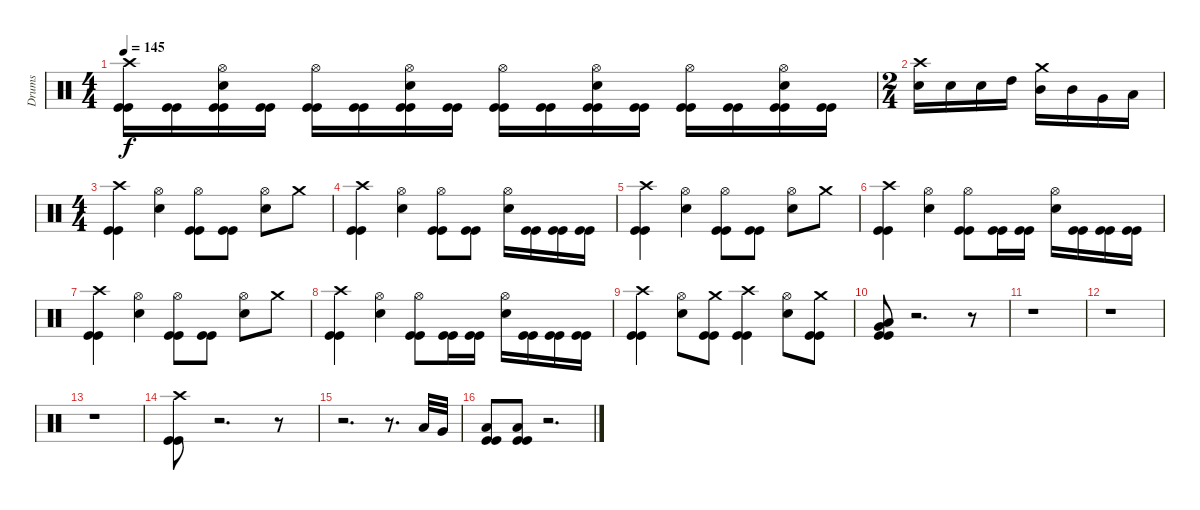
\track ("Drums" "Drums") {instrument percussion}
\staff {score}
\articulation defaults
\ts (4 4)
\tempo 145
\clef neutral
\ks c
("Kick (hit)" "Kick (hit)" "Crash high (hit)").16{dy f} ("Kick (hit)" "Kick (hit)").16 ("Kick (hit)" "Kick (hit)" "Snare (hit) 2" "Hi-Hat (open)").16 ("Kick (hit)" "Kick (hit)").16 ("Kick (hit)" "Kick (hit)" "Hi-Hat (open)").16 ("Kick (hit)" "Kick (hit)").16 ("Kick (hit)" "Kick (hit)" "Snare (hit) 2" "Hi-Hat (open)").16 ("Kick (hit)" "Kick (hit)").16 ("Kick (hit)" "Kick (hit)" "Hi-Hat (open)").16 ("Kick (hit)" "Kick (hit)").16 ("Kick (hit)" "Kick (hit)" "Snare (hit) 2" "Hi-Hat (open)").16 ("Kick (hit)" "Kick (hit)").16 ("Kick (hit)" "Kick (hit)" "Hi-Hat (open)").16 ("Kick (hit)" "Kick (hit)").16 ("Kick (hit)" "Kick (hit)" "Snare (hit) 2" "Hi-Hat (open)").16 ("Kick (hit)" "Kick (hit)").16 |
\ts (2 4)
("Snare (hit) 2" "Crash high (hit)").16 "Snare (hit) 2".16 "Snare (hit) 2".16 "High Tom (hit)".16 ("Mid Tom (hit)" "Crash medium (hit)").16 "Mid Tom (hit)".16 "Very Low Tom (hit)".16 "Low Floor Tom (hit)".16 |
\ts (4 4)
("Kick (hit)" "Kick (hit)" "Crash high (hit)").4 ("Snare (hit) 2" "Hi-Hat (open)").4 ("Kick (hit)" "Kick (hit)" "Hi-Hat (open)").8 ("Kick (hit)" "Kick (hit)").8 ("Snare (hit) 2" "Hi-Hat (open)").8 "Crash medium (hit)".8 |
("Kick (hit)" "Kick (hit)" "Crash high (hit)").4 ("Snare (hit) 2" "Hi-Hat (open)").4 ("Kick (hit)" "Kick (hit)" "Hi-Hat (open)").8 ("Kick (hit)" "Kick (hit)").8 ("Snare (hit) 2" "Hi-Hat (open)").16 ("Kick (hit)" "Kick (hit)").16 ("Kick (hit)" "Kick (hit)").16 ("Kick (hit)" "Kick (hit)").16 |
("Kick (hit)" "Kick (hit)" "Crash high (hit)").4 ("Snare (hit) 2" "Hi-Hat (open)").4 ("Kick (hit)" "Kick (hit)" "Hi-Hat (open)").8 ("Kick (hit)" "Kick (hit)").8 ("Snare (hit) 2" "Hi-Hat (open)").8 "Crash medium (hit)".8 |
("Kick (hit)" "Kick (hit)" "Crash high (hit)").4 ("Snare (hit) 2" "Hi-Hat (open)").4 ("Kick (hit)" "Kick (hit)" "Hi-Hat (open)").8 ("Kick (hit)" "Kick (hit)").16 ("Kick (hit)" "Kick (hit)").16 ("Snare (hit) 2" "Hi-Hat (open)").16 ("Kick (hit)" "Kick (hit)").16 ("Kick (hit)" "Kick (hit)").16 ("Kick (hit)" "Kick (hit)").16 |
("Kick (hit)" "Kick (hit)" "Crash high (hit)").4 ("Snare (hit) 2" "Hi-Hat (open)").4 ("Kick (hit)" "Kick (hit)" "Hi-Hat (open)").8 ("Kick (hit)" "Kick (hit)").8 ("Snare (hit) 2" "Hi-Hat (open)").8 "Crash medium (hit)".8 |
("Kick (hit)" "Kick (hit)" "Crash high (hit)").4 ("Snare (hit) 2" "Hi-Hat (open)").4 ("Kick (hit)" "Kick (hit)" "Hi-Hat (open)").8 ("Kick (hit)" "Kick (hit)").16 ("Kick (hit)" "Kick (hit)").16 ("Snare (hit) 2" "Hi-Hat (open)").16 ("Kick (hit)" "Kick (hit)").16 ("Kick (hit)" "Kick (hit)").16 ("Kick (hit)" "Kick (hit)").16 |
("Kick (hit)" "Kick (hit)" "Crash high (hit)").4 ("Snare (hit) 2" "Hi-Hat (open)").8 ("Kick (hit)" "Kick (hit)" "Crash medium (hit)").8 ("Kick (hit)" "Kick (hit)" "Crash high (hit)").4 ("Snare (hit) 2" "Hi-Hat (open)").8 ("Kick (hit)" "Kick (hit)" "Crash medium (hit)").8 |
("Kick (hit)" "Kick (hit)" "Low Floor Tom (hit)" "Very Low Tom (hit)").8 r.2{d} r.8 |
r.1 |
r.1 |
r.1 |
("Kick (hit)" "Kick (hit)" "Crash high (hit)").8 r.2{d} r.8 |
r.2{d} r.8{d} "Low Tom (hit)".32 "Very Low Tom (hit)".32 |
("Kick (hit)" "Kick (hit)" "Low Floor Tom (hit)").8 ("Kick (hit)" "Kick (hit)" "Low Floor Tom (hit)").8 r.2{d}
